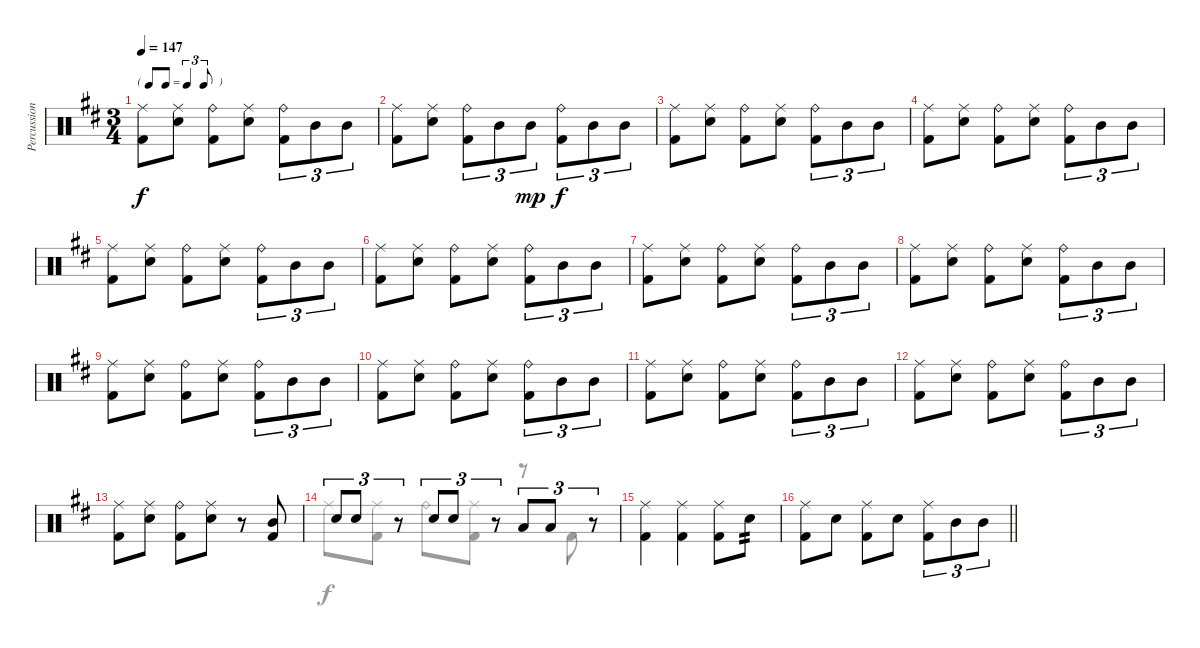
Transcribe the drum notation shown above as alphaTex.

\track ("Percussion" "Percussion") {instrument percussion}
\staff {score}
\articulation defaults
\voice
\ts (3 4)
\tf triplet8th
\tempo 147
\clef neutral
\ks d
("Ride (middle)" "Kick (hit) 2").8{dy f} ("Ride (middle)" "Snare (hit) 2").8 ("Ride (bell)" "Kick (hit) 2").8 ("Ride (middle)" "Snare (hit) 2").8 ("Ride (bell)" "Kick (hit) 2").8{tu (3 2)} "Mid Tom (hit)".8{tu (3 2)} "Mid Tom (hit)".8{tu (3 2)} |
("Ride (middle)" "Kick (hit) 2").8 ("Ride (middle)" "Snare (hit) 2").8 ("Ride (bell)" "Kick (hit) 2").8{tu (3 2)} "Mid Tom (hit)".8{tu (3 2)} "Mid Tom (hit)".8{tu (3 2) dy mp} ("Ride (bell)" "Kick (hit) 2").8{tu (3 2) dy f} "Mid Tom (hit)".8{tu (3 2)} "Mid Tom (hit)".8{tu (3 2)} |
("Ride (middle)" "Kick (hit) 2").8 ("Ride (middle)" "Snare (hit) 2").8 ("Ride (bell)" "Kick (hit) 2").8 ("Ride (middle)" "Snare (hit) 2").8 ("Ride (bell)" "Kick (hit) 2").8{tu (3 2)} "Mid Tom (hit)".8{tu (3 2)} "Mid Tom (hit)".8{tu (3 2)} |
("Ride (middle)" "Kick (hit) 2").8 ("Ride (middle)" "Snare (hit) 2").8 ("Ride (bell)" "Kick (hit) 2").8 ("Ride (middle)" "Snare (hit) 2").8 ("Ride (bell)" "Kick (hit) 2").8{tu (3 2)} "Mid Tom (hit)".8{tu (3 2)} "Mid Tom (hit)".8{tu (3 2)} |
("Ride (middle)" "Kick (hit) 2").8 ("Ride (middle)" "Snare (hit) 2").8 ("Ride (bell)" "Kick (hit) 2").8 ("Ride (middle)" "Snare (hit) 2").8 ("Ride (bell)" "Kick (hit) 2").8{tu (3 2)} "Mid Tom (hit)".8{tu (3 2)} "Mid Tom (hit)".8{tu (3 2)} |
("Ride (middle)" "Kick (hit) 2").8 ("Ride (middle)" "Snare (hit) 2").8 ("Ride (bell)" "Kick (hit) 2").8 ("Ride (middle)" "Snare (hit) 2").8 ("Ride (bell)" "Kick (hit) 2").8{tu (3 2)} "Mid Tom (hit)".8{tu (3 2)} "Mid Tom (hit)".8{tu (3 2)} |
("Ride (middle)" "Kick (hit) 2").8 ("Ride (middle)" "Snare (hit) 2").8 ("Ride (bell)" "Kick (hit) 2").8 ("Ride (middle)" "Snare (hit) 2").8 ("Ride (bell)" "Kick (hit) 2").8{tu (3 2)} "Mid Tom (hit)".8{tu (3 2)} "Mid Tom (hit)".8{tu (3 2)} |
("Ride (middle)" "Kick (hit) 2").8 ("Ride (middle)" "Snare (hit) 2").8 ("Ride (bell)" "Kick (hit) 2").8 ("Ride (middle)" "Snare (hit) 2").8 ("Ride (bell)" "Kick (hit) 2").8{tu (3 2)} "Mid Tom (hit)".8{tu (3 2)} "Mid Tom (hit)".8{tu (3 2)} |
("Ride (middle)" "Kick (hit) 2").8 ("Ride (middle)" "Snare (hit) 2").8 ("Ride (bell)" "Kick (hit) 2").8 ("Ride (middle)" "Snare (hit) 2").8 ("Ride (bell)" "Kick (hit) 2").8{tu (3 2)} "Mid Tom (hit)".8{tu (3 2)} "Mid Tom (hit)".8{tu (3 2)} |
("Ride (middle)" "Kick (hit) 2").8 ("Ride (middle)" "Snare (hit) 2").8 ("Ride (bell)" "Kick (hit) 2").8 ("Ride (middle)" "Snare (hit) 2").8 ("Ride (bell)" "Kick (hit) 2").8{tu (3 2)} "Mid Tom (hit)".8{tu (3 2)} "Mid Tom (hit)".8{tu (3 2)} |
("Ride (middle)" "Kick (hit) 2").8 ("Ride (middle)" "Snare (hit) 2").8 ("Ride (bell)" "Kick (hit) 2").8 ("Ride (middle)" "Snare (hit) 2").8 ("Ride (bell)" "Kick (hit) 2").8{tu (3 2)} "Mid Tom (hit)".8{tu (3 2)} "Mid Tom (hit)".8{tu (3 2)} |
("Ride (middle)" "Kick (hit) 2").8 ("Ride (middle)" "Snare (hit) 2").8 ("Ride (bell)" "Kick (hit) 2").8 ("Ride (middle)" "Snare (hit) 2").8 ("Ride (bell)" "Kick (hit) 2").8{tu (3 2)} "Mid Tom (hit)".8{tu (3 2)} "Mid Tom (hit)".8{tu (3 2)} |
("Ride (middle)" "Kick (hit) 2").8 ("Ride (middle)" "Snare (hit) 2").8 ("Ride (bell)" "Kick (hit) 2").8 ("Ride (middle)" "Snare (hit) 2").8 r.8 ("Mid Tom (hit)" "Kick (hit) 2").8 |
"Snare (hit) 2".8{tu (3 2)} "Snare (hit) 2".8{tu (3 2)} r.8{tu (3 2)} "Snare (hit) 2".8{tu (3 2)} "Snare (hit) 2".8{tu (3 2)} r.8{tu (3 2)} "Low Floor Tom (hit)".8{tu (3 2)} "Low Floor Tom (hit)".8{tu (3 2)} r.8{tu (3 2)} |
("Ride (middle)" "Kick (hit) 2").4 ("Ride (middle)" "Kick (hit) 2").4 ("Ride (middle)" "Kick (hit) 2").8 "Snare (hit) 2".8{tp 2} |
\barLineRight lightlight
("Ride (middle)" "Kick (hit) 2").8 "Snare (hit) 2".8 ("Ride (middle)" "Kick (hit) 2").8 "Snare (hit) 2".8 ("Ride (middle)" "Kick (hit) 2").8{tu (3 2)} "Mid Tom (hit)".8{tu (3 2)} "Mid Tom (hit)".8{tu (3 2)}
\voice
\clef neutral
\ottava regular
\simile none
\ks d
|
|
|
|
|
|
|
|
|
|
|
|
|
"Ride (middle)".8 ("Kick (hit) 2" "Ride (middle)").8 "Ride (bell)".8 ("Kick (hit) 2" "Ride (middle)").8 r.8 "Kick (hit) 2".8 |
|
\barLineRight lightlight
